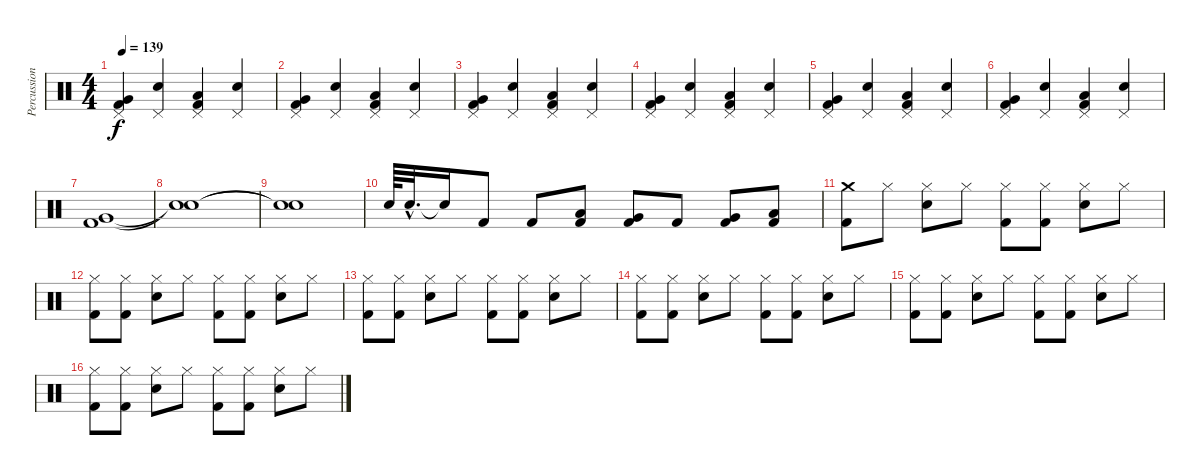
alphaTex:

\track ("Percussion" "Percussion") {instrument percussion}
\staff {score}
\articulation defaults
\ts (4 4)
\tempo 139
\clef neutral
\ks c
("Pedal Hi-Hat (hit)" "Very Low Tom (hit)" "Kick (hit) 2").4{dy f} ("Pedal Hi-Hat (hit)" "Metronome (bell)").4 ("Pedal Hi-Hat (hit)" "Low Floor Tom (hit)" "Kick (hit) 2").4 ("Pedal Hi-Hat (hit)" "Metronome (bell)").4 |
("Pedal Hi-Hat (hit)" "Very Low Tom (hit)" "Kick (hit) 2").4 ("Pedal Hi-Hat (hit)" "Metronome (bell)").4 ("Pedal Hi-Hat (hit)" "Low Floor Tom (hit)" "Kick (hit) 2").4 ("Pedal Hi-Hat (hit)" "Metronome (bell)").4 |
("Pedal Hi-Hat (hit)" "Very Low Tom (hit)" "Kick (hit) 2").4 ("Pedal Hi-Hat (hit)" "Metronome (bell)").4 ("Pedal Hi-Hat (hit)" "Low Floor Tom (hit)" "Kick (hit) 2").4 ("Pedal Hi-Hat (hit)" "Metronome (bell)").4 |
("Pedal Hi-Hat (hit)" "Very Low Tom (hit)" "Kick (hit) 2").4 ("Pedal Hi-Hat (hit)" "Metronome (bell)").4 ("Pedal Hi-Hat (hit)" "Low Floor Tom (hit)" "Kick (hit) 2").4 ("Pedal Hi-Hat (hit)" "Metronome (bell)").4 |
("Pedal Hi-Hat (hit)" "Very Low Tom (hit)" "Kick (hit) 2").4 ("Pedal Hi-Hat (hit)" "Metronome (bell)").4 ("Pedal Hi-Hat (hit)" "Low Floor Tom (hit)" "Kick (hit) 2").4 ("Pedal Hi-Hat (hit)" "Metronome (bell)").4 |
("Pedal Hi-Hat (hit)" "Very Low Tom (hit)" "Kick (hit) 2").4 ("Pedal Hi-Hat (hit)" "Metronome (bell)").4 ("Pedal Hi-Hat (hit)" "Low Floor Tom (hit)" "Kick (hit) 2").4 ("Pedal Hi-Hat (hit)" "Metronome (bell)").4 |
("Very Low Tom (hit)" "Kick (hit) 2").1 |
("Snare (hit)"{t} "Snare (hit)"{t}).1 |
("Snare (hit)"{t} "Snare (hit)"{t}).1 |
"Metronome (bell)".64 "Metronome (bell)"{hac}.32{d} "Snare (hit)"{t}.16 "Kick (hit) 2".8 "Kick (hit) 2".8 ("Low Tom (hit)" "Kick (hit) 2").8 ("Very Low Tom (hit)" "Kick (hit) 2").8 "Kick (hit) 2".8 ("Very Low Tom (hit)" "Kick (hit) 2").8 ("Low Floor Tom (hit)" "Kick (hit) 2").8 |
("Crash medium (hit)" "Kick (hit) 2").8 "Hi-Hat (closed)".8 ("Hi-Hat (closed)" "Metronome (bell)").8 "Hi-Hat (closed)".8 ("Hi-Hat (closed)" "Kick (hit) 2").8 ("Hi-Hat (closed)" "Kick (hit) 2").8 ("Hi-Hat (closed)" "Metronome (bell)").8 "Hi-Hat (closed)".8 |
("Hi-Hat (closed)" "Kick (hit) 2").8 ("Hi-Hat (closed)" "Kick (hit) 2").8 ("Hi-Hat (closed)" "Metronome (bell)").8 "Hi-Hat (closed)".8 ("Hi-Hat (closed)" "Kick (hit) 2").8 ("Hi-Hat (closed)" "Kick (hit) 2").8 ("Hi-Hat (closed)" "Metronome (bell)").8 "Hi-Hat (closed)".8 |
("Hi-Hat (closed)" "Kick (hit) 2").8 ("Hi-Hat (closed)" "Kick (hit) 2").8 ("Hi-Hat (closed)" "Metronome (bell)").8 "Hi-Hat (closed)".8 ("Hi-Hat (closed)" "Kick (hit) 2").8 ("Hi-Hat (closed)" "Kick (hit) 2").8 ("Hi-Hat (closed)" "Metronome (bell)").8 "Hi-Hat (closed)".8 |
("Hi-Hat (closed)" "Kick (hit) 2").8 ("Hi-Hat (closed)" "Kick (hit) 2").8 ("Hi-Hat (closed)" "Metronome (bell)").8 "Hi-Hat (closed)".8 ("Hi-Hat (closed)" "Kick (hit) 2").8 ("Hi-Hat (closed)" "Kick (hit) 2").8 ("Hi-Hat (closed)" "Metronome (bell)").8 "Hi-Hat (closed)".8 |
("Hi-Hat (closed)" "Kick (hit) 2").8 ("Hi-Hat (closed)" "Kick (hit) 2").8 ("Hi-Hat (closed)" "Metronome (bell)").8 "Hi-Hat (closed)".8 ("Hi-Hat (closed)" "Kick (hit) 2").8 ("Hi-Hat (closed)" "Kick (hit) 2").8 ("Hi-Hat (closed)" "Metronome (bell)").8 "Hi-Hat (closed)".8 |
("Hi-Hat (closed)" "Kick (hit) 2").8 ("Hi-Hat (closed)" "Kick (hit) 2").8 ("Hi-Hat (closed)" "Metronome (bell)").8 "Hi-Hat (closed)".8 ("Hi-Hat (closed)" "Kick (hit) 2").8 ("Hi-Hat (closed)" "Kick (hit) 2").8 ("Hi-Hat (closed)" "Metronome (bell)").8 "Hi-Hat (closed)".8
